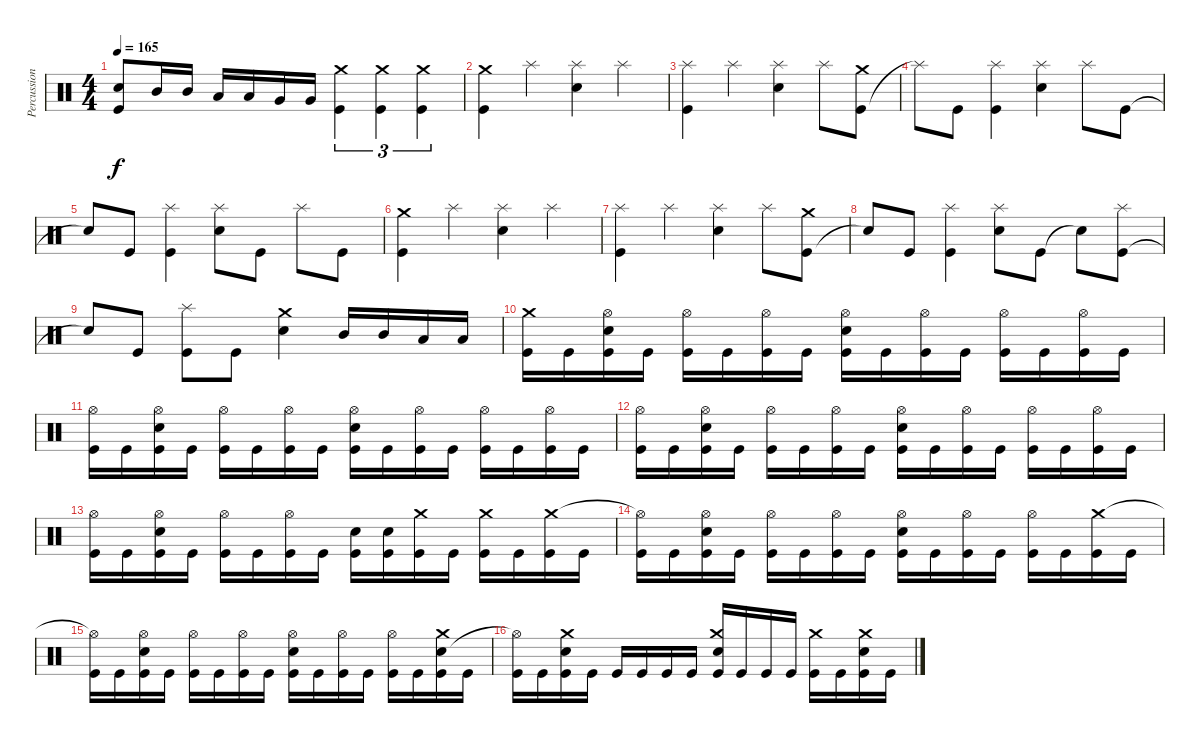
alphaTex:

\track ("Percussions" "Percussion") {instrument percussion}
\staff {score}
\articulation defaults
\ts (4 4)
\tempo 165
\clef neutral
\ks c
("Kick (hit)" "Snare (hit)"{t}).8{dy f} "Mid Tom (hit)".16 "Mid Tom (hit)".16 "Low Tom (hit)".16 "Low Tom (hit)".16 "Very Low Tom (hit)".16 "Very Low Tom (hit)".16 ("Kick (hit)" "Crash medium (hit)").4{tu (3 2)} ("Kick (hit)" "Crash medium (hit)").4{tu (3 2)} ("Kick (hit)" "Crash medium (hit)").4{tu (3 2)} |
("Kick (hit)" "Crash medium (hit)").4 "Splash (hit)".4 ("Electric Snare (hit)" "Splash (hit)").4 "Splash (hit)".4 |
("Kick (hit)" "Splash (hit)").4 "Splash (hit)".4 ("Electric Snare (hit)" "Splash (hit)").4 "Splash (hit)".8 ("Kick (hit)" "Crash medium (hit)").8 |
"Splash (hit)"{t}.8 "Kick (hit)".8 ("Kick (hit)" "Splash (hit)").4 ("Electric Snare (hit)" "Splash (hit)").4 "Splash (hit)".8 "Kick (hit)".8 |
"Snare (hit)"{t}.8 "Kick (hit)".8 ("Kick (hit)" "Splash (hit)").4 ("Electric Snare (hit)" "Splash (hit)").8 "Kick (hit)".8 "Splash (hit)".8 "Kick (hit)".8 |
("Kick (hit)" "Crash medium (hit)").4 "Splash (hit)".4 ("Electric Snare (hit)" "Splash (hit)").4 "Splash (hit)".4 |
("Kick (hit)" "Splash (hit)").4 "Splash (hit)".4 ("Electric Snare (hit)" "Splash (hit)").4 "Splash (hit)".8 ("Kick (hit)" "Crash medium (hit)").8 |
"Snare (hit)"{t}.8 "Kick (hit)".8 ("Kick (hit)" "Splash (hit)").4 ("Electric Snare (hit)" "Splash (hit)").8 "Kick (hit)".8 "Snare (hit)"{t}.8 ("Kick (hit)" "Splash (hit)").8 |
"Snare (hit)"{t}.8 "Kick (hit)".8 ("Kick (hit)" "Splash (hit)").8 "Kick (hit)".8 ("Electric Snare (hit)" "Crash medium (hit)").4 "Mid Tom (hit)".16 "Mid Tom (hit)".16 "Low Tom (hit)".16 "Low Tom (hit)".16 |
("Kick (hit)" "Crash medium (hit)").16 "Kick (hit)".16 ("Kick (hit)" "Electric Snare (hit)" "Hi-Hat (open)").16 "Kick (hit)".16 ("Kick (hit)" "Hi-Hat (open)").16 "Kick (hit)".16 ("Kick (hit)" "Hi-Hat (open)").16 "Kick (hit)".16 ("Kick (hit)" "Electric Snare (hit)" "Hi-Hat (open)").16 "Kick (hit)".16 ("Kick (hit)" "Hi-Hat (open)").16 "Kick (hit)".16 ("Kick (hit)" "Hi-Hat (open)").16 "Kick (hit)".16 ("Kick (hit)" "Hi-Hat (open)").16 "Kick (hit)".16 |
("Kick (hit)" "Hi-Hat (open)").16 "Kick (hit)".16 ("Kick (hit)" "Electric Snare (hit)" "Hi-Hat (open)").16 "Kick (hit)".16 ("Kick (hit)" "Hi-Hat (open)").16 "Kick (hit)".16 ("Kick (hit)" "Hi-Hat (open)").16 "Kick (hit)".16 ("Kick (hit)" "Electric Snare (hit)" "Hi-Hat (open)").16 "Kick (hit)".16 ("Kick (hit)" "Hi-Hat (open)").16 "Kick (hit)".16 ("Kick (hit)" "Hi-Hat (open)").16 "Kick (hit)".16 ("Kick (hit)" "Hi-Hat (open)").16 "Kick (hit)".16 |
("Kick (hit)" "Hi-Hat (open)").16 "Kick (hit)".16 ("Kick (hit)" "Electric Snare (hit)" "Hi-Hat (open)").16 "Kick (hit)".16 ("Kick (hit)" "Hi-Hat (open)").16 "Kick (hit)".16 ("Kick (hit)" "Hi-Hat (open)").16 "Kick (hit)".16 ("Kick (hit)" "Electric Snare (hit)" "Hi-Hat (open)").16 "Kick (hit)".16 ("Kick (hit)" "Hi-Hat (open)").16 "Kick (hit)".16 ("Kick (hit)" "Hi-Hat (open)").16 "Kick (hit)".16 ("Kick (hit)" "Hi-Hat (open)").16 "Kick (hit)".16 |
("Kick (hit)" "Hi-Hat (open)").16 "Kick (hit)".16 ("Kick (hit)" "Electric Snare (hit)" "Hi-Hat (open)").16 "Kick (hit)".16 ("Kick (hit)" "Hi-Hat (open)").16 "Kick (hit)".16 ("Kick (hit)" "Hi-Hat (open)").16 "Kick (hit)".16 ("Kick (hit)" "Electric Snare (hit)").16 ("Kick (hit)" "Electric Snare (hit)").16 ("Kick (hit)" "Crash medium (hit)").16 "Kick (hit)".16 ("Kick (hit)" "Crash medium (hit)").16 "Kick (hit)".16 ("Kick (hit)" "Crash medium (hit)").16 "Kick (hit)".16 |
("Kick (hit)" "Hi-Hat (open)"{t}).16 "Kick (hit)".16 ("Kick (hit)" "Electric Snare (hit)" "Hi-Hat (open)").16 "Kick (hit)".16 ("Kick (hit)" "Hi-Hat (open)").16 "Kick (hit)".16 ("Kick (hit)" "Hi-Hat (open)").16 "Kick (hit)".16 ("Kick (hit)" "Electric Snare (hit)" "Hi-Hat (open)").16 "Kick (hit)".16 ("Kick (hit)" "Hi-Hat (open)").16 "Kick (hit)".16 ("Kick (hit)" "Hi-Hat (open)").16 "Kick (hit)".16 ("Kick (hit)" "Crash medium (hit)").16 "Kick (hit)".16 |
("Kick (hit)" "Hi-Hat (open)"{t}).16 "Kick (hit)".16 ("Kick (hit)" "Electric Snare (hit)" "Hi-Hat (open)").16 "Kick (hit)".16 ("Kick (hit)" "Hi-Hat (open)").16 "Kick (hit)".16 ("Kick (hit)" "Hi-Hat (open)").16 "Kick (hit)".16 ("Kick (hit)" "Electric Snare (hit)" "Hi-Hat (open)").16 "Kick (hit)".16 ("Kick (hit)" "Hi-Hat (open)").16 "Kick (hit)".16 ("Kick (hit)" "Hi-Hat (open)").16 "Kick (hit)".16 ("Kick (hit)" "Electric Snare (hit)" "Crash medium (hit)").16 "Kick (hit)".16 |
("Kick (hit)" "Hi-Hat (open)"{t}).16 "Kick (hit)".16 ("Kick (hit)" "Electric Snare (hit)" "Crash medium (hit)").16 "Kick (hit)".16 "Kick (hit)".16 "Kick (hit)".16 "Kick (hit)".16 "Kick (hit)".16 ("Kick (hit)" "Electric Snare (hit)" "Crash medium (hit)").16 "Kick (hit)".16 "Kick (hit)".16 "Kick (hit)".16 ("Kick (hit)" "Crash medium (hit)").16 "Kick (hit)".16 ("Kick (hit)" "Electric Snare (hit)" "Crash medium (hit)").16 "Kick (hit)".16
